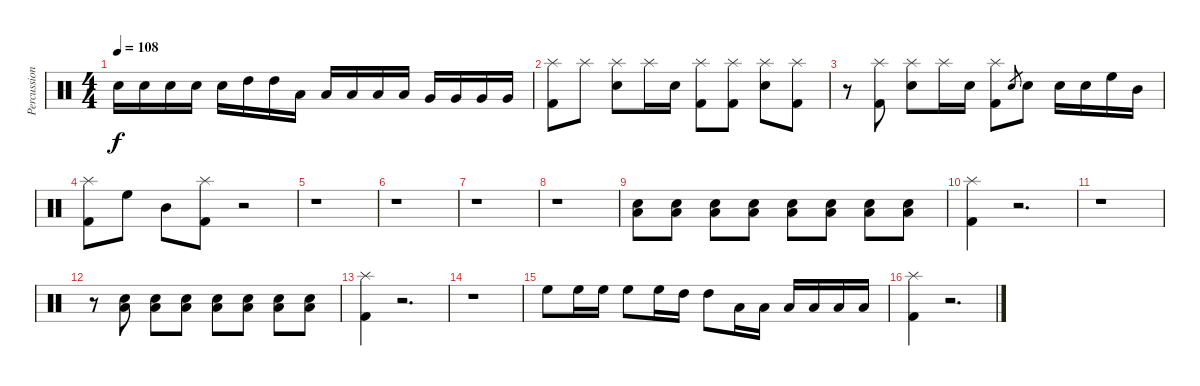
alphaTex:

\track ("Percussion" "Percussion") {instrument percussion}
\staff {score}
\articulation defaults
\ts (4 4)
\tempo 108
\clef neutral
\ks c "Snare (hit) 2".16{dy f} "Snare (hit) 2".16 "Snare (hit) 2".16 "Snare (hit) 2".16 "Snare (hit) 2".16 "High Tom (hit)".16 "High Tom (hit)".16 "Low Tom (hit)".16 "Low Tom (hit)".16 "Low Tom (hit)".16 "Low Tom (hit)".16 "Low Tom (hit)".16 "Very Low Tom (hit)".16 "Very Low Tom (hit)".16 "Very Low Tom (hit)".16 "Very Low Tom (hit)".16
|
("Kick (hit) 2" "Splash (hit)").8 "Splash (hit)".8 ("Snare (hit) 2" "Splash (hit)").8 "Splash (hit)".16 "Snare (hit) 2".16 ("Kick (hit) 2" "Splash (hit)").8 ("Kick (hit) 2" "Splash (hit)").8 ("Snare (hit) 2" "Splash (hit)").8 ("Kick (hit) 2" "Splash (hit)").8 |
r.8 ("Kick (hit) 2" "Splash (hit)").8 ("Snare (hit) 2" "Splash (hit)").8 "Splash (hit)".16 "Snare (hit) 2".16 ("Kick (hit) 2" "Splash (hit)").8 "Snare (hit) 2".8{gr} "Snare (hit) 2".8 "Snare (hit) 2".16 "Snare (hit) 2".16 "High Floor Tom (hit)".16 "Mid Tom (hit)".16 |
("Kick (hit) 2" "Splash (hit)").8 "High Floor Tom (hit)".8 "Mid Tom (hit)".8 ("Kick (hit) 2" "Splash (hit)").8 r.2 |
r.1 |
r.1 |
r.1 |
r.1 |
("Snare (hit) 2" "Low Tom (hit)").8 ("Snare (hit) 2" "Low Tom (hit)").8 ("Snare (hit) 2" "Low Tom (hit)").8 ("Snare (hit) 2" "Low Tom (hit)").8 ("Snare (hit) 2" "Low Tom (hit)").8 ("Snare (hit) 2" "Low Tom (hit)").8 ("Snare (hit) 2" "Low Tom (hit)").8 ("Snare (hit) 2" "Low Tom (hit)").8 |
("Kick (hit) 2" "Splash (hit)").4 r.2{d} |
r.1 |
r.8 ("Snare (hit) 2" "Low Tom (hit)").8 ("Snare (hit) 2" "Low Tom (hit)").8 ("Snare (hit) 2" "Low Tom (hit)").8 ("Snare (hit) 2" "Low Tom (hit)").8 ("Snare (hit) 2" "Low Tom (hit)").8 ("Snare (hit) 2" "Low Tom (hit)").8 ("Snare (hit) 2" "Low Tom (hit)").8 |
("Kick (hit) 2" "Splash (hit)").4 r.2{d} |
r.1 |
"High Floor Tom (hit)".8 "High Floor Tom (hit)".16 "High Floor Tom (hit)".16 "High Floor Tom (hit)".8 "High Floor Tom (hit)".16 "High Tom (hit)".16 "High Tom (hit)".8 "Low Tom (hit)".16 "Low Tom (hit)".16 "Low Floor Tom (hit)".16 "Low Floor Tom (hit)".16 "Low Floor Tom (hit)".16 "Low Floor Tom (hit)".16 |
("Kick (hit) 2" "Splash (hit)").4 r.2{d}
